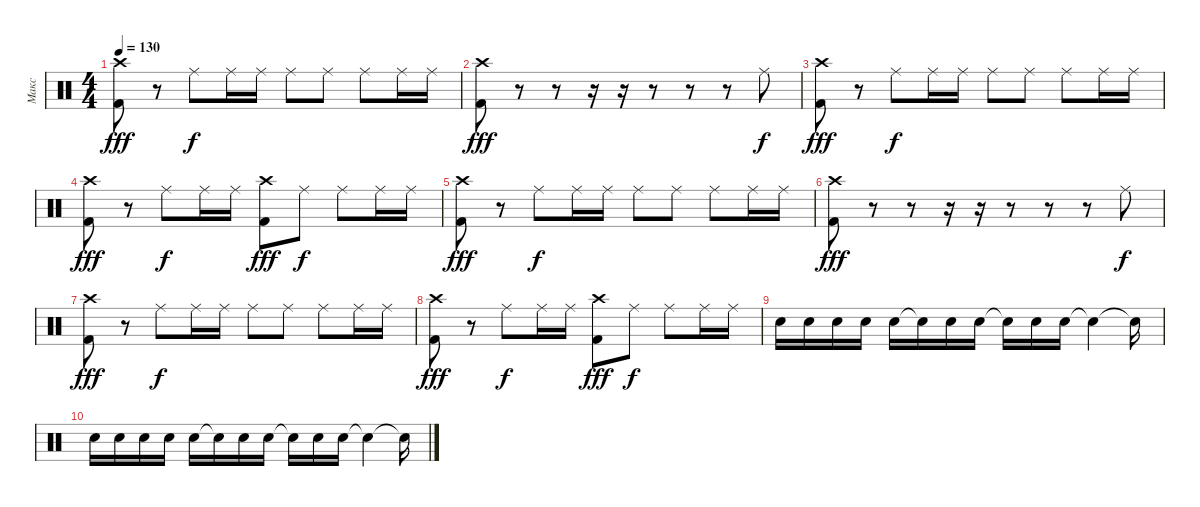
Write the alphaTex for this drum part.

\track ("Макс" "Макс") {instrument percussion}
\staff {score}
\articulation defaults
\ts (4 4)
\tempo 130
\clef neutral
\ks c
("Crash high (hit)" "Kick (hit) 2").8{dy fff} r.8 "Ride (middle)".8{dy f} "Ride (middle)".16 "Ride (middle)".16 "Ride (middle)".8 "Ride (middle)".8 "Ride (middle)".8 "Ride (middle)".16 "Ride (middle)".16 |
("Crash high (hit)" "Kick (hit) 2").8{dy fff} r.8 r.8 r.16 r.16 r.8 r.8 r.8 "Ride (middle)".8{dy f} |
("Crash high (hit)" "Kick (hit) 2").8{dy fff} r.8 "Ride (middle)".8{dy f} "Ride (middle)".16 "Ride (middle)".16 "Ride (middle)".8 "Ride (middle)".8 "Ride (middle)".8 "Ride (middle)".16 "Ride (middle)".16 |
("Crash high (hit)" "Kick (hit) 2").8{dy fff} r.8 "Ride (middle)".8{dy f} "Ride (middle)".16 "Ride (middle)".16 ("Crash high (hit)" "Kick (hit) 2").8{dy fff} "Ride (middle)".8{dy f} "Ride (middle)".8 "Ride (middle)".16 "Ride (middle)".16 |
("Crash high (hit)" "Kick (hit) 2").8{dy fff} r.8 "Ride (middle)".8{dy f} "Ride (middle)".16 "Ride (middle)".16 "Ride (middle)".8 "Ride (middle)".8 "Ride (middle)".8 "Ride (middle)".16 "Ride (middle)".16 |
("Crash high (hit)" "Kick (hit) 2").8{dy fff} r.8 r.8 r.16 r.16 r.8 r.8 r.8 "Ride (middle)".8{dy f} |
("Crash high (hit)" "Kick (hit) 2").8{dy fff} r.8 "Ride (middle)".8{dy f} "Ride (middle)".16 "Ride (middle)".16 "Ride (middle)".8 "Ride (middle)".8 "Ride (middle)".8 "Ride (middle)".16 "Ride (middle)".16 |
("Crash high (hit)" "Kick (hit) 2").8{dy fff} r.8 "Ride (middle)".8{dy f} "Ride (middle)".16 "Ride (middle)".16 ("Crash high (hit)" "Kick (hit) 2").8{dy fff} "Ride (middle)".8{dy f} "Ride (middle)".8 "Ride (middle)".16 "Ride (middle)".16 |
"Electric Snare (hit)".16 "Electric Snare (hit)".16 "Electric Snare (hit)".16 "Electric Snare (hit)".16 "Electric Snare (hit)".16 "Snare (hit)"{t}.16 "Electric Snare (hit)".16 "Electric Snare (hit)".16 "Snare (hit)"{t}.16 "Electric Snare (hit)".16 "Electric Snare (hit)".16 "Snare (hit)"{t}.4 "Snare (hit)"{t}.16 |
"Electric Snare (hit)".16 "Electric Snare (hit)".16 "Electric Snare (hit)".16 "Electric Snare (hit)".16 "Electric Snare (hit)".16 "Snare (hit)"{t}.16 "Electric Snare (hit)".16 "Electric Snare (hit)".16 "Snare (hit)"{t}.16 "Electric Snare (hit)".16 "Electric Snare (hit)".16 "Snare (hit)"{t}.4 "Snare (hit)"{t}.16
